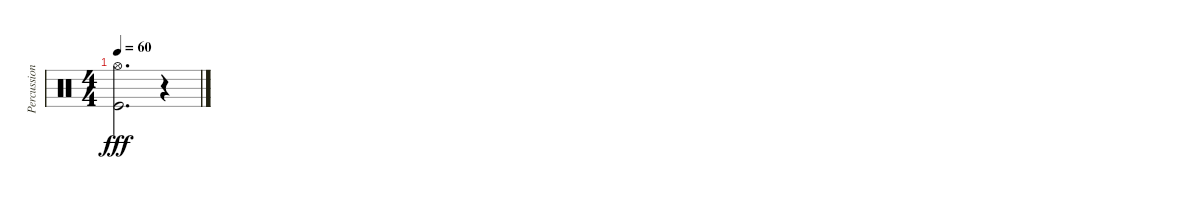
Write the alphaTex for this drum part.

\track ("Percussion" "Percussion") {instrument percussion}
\staff {score}
\articulation defaults
\ts (4 4)
\tempo 60
\clef neutral
\ks c
("Hi-Hat (open)" "Kick (hit)").2{d dy fff} r.4
